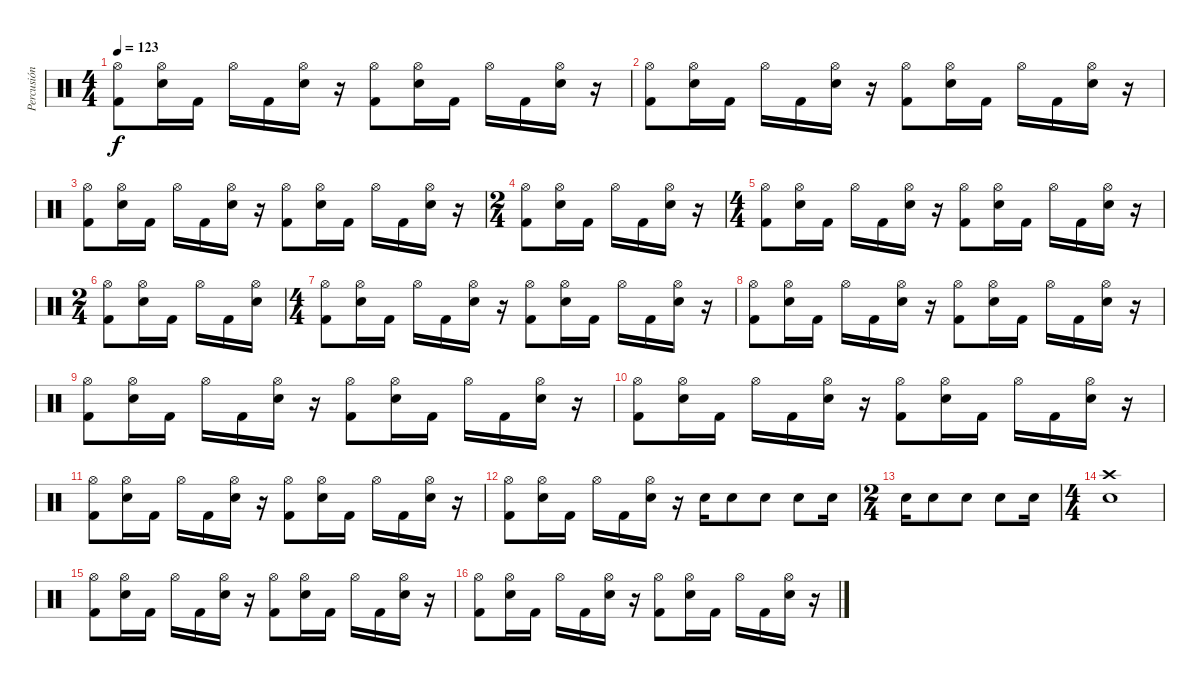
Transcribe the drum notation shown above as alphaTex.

\track ("Percusión" "Percusión") {instrument percussion}
\staff {score}
\articulation defaults
\ts (4 4)
\tempo 123
\clef neutral
\ks c
("Hi-Hat (open)" "Kick (hit) 2").8{dy f} ("Hi-Hat (open)" "Snare (hit) 2").16 "Kick (hit) 2".16 "Hi-Hat (open)".16 "Kick (hit) 2".16 ("Hi-Hat (open)" "Snare (hit) 2").16 r.16 ("Hi-Hat (open)" "Kick (hit) 2").8 ("Hi-Hat (open)" "Snare (hit) 2").16 "Kick (hit) 2".16 "Hi-Hat (open)".16 "Kick (hit) 2".16 ("Hi-Hat (open)" "Snare (hit) 2").16 r.16 |
("Hi-Hat (open)" "Kick (hit) 2").8 ("Hi-Hat (open)" "Snare (hit) 2").16 "Kick (hit) 2".16 "Hi-Hat (open)".16 "Kick (hit) 2".16 ("Hi-Hat (open)" "Snare (hit) 2").16 r.16 ("Hi-Hat (open)" "Kick (hit) 2").8 ("Hi-Hat (open)" "Snare (hit) 2").16 "Kick (hit) 2".16 "Hi-Hat (open)".16 "Kick (hit) 2".16 ("Hi-Hat (open)" "Snare (hit) 2").16 r.16 |
("Hi-Hat (open)" "Kick (hit) 2").8 ("Hi-Hat (open)" "Snare (hit) 2").16 "Kick (hit) 2".16 "Hi-Hat (open)".16 "Kick (hit) 2".16 ("Hi-Hat (open)" "Snare (hit) 2").16 r.16 ("Hi-Hat (open)" "Kick (hit) 2").8 ("Hi-Hat (open)" "Snare (hit) 2").16 "Kick (hit) 2".16 "Hi-Hat (open)".16 "Kick (hit) 2".16 ("Hi-Hat (open)" "Snare (hit) 2").16 r.16 |
\ts (2 4)
("Hi-Hat (open)" "Kick (hit) 2").8 ("Hi-Hat (open)" "Snare (hit) 2").16 "Kick (hit) 2".16 "Hi-Hat (open)".16 "Kick (hit) 2".16 ("Hi-Hat (open)" "Snare (hit) 2").16 r.16 |
\ts (4 4)
("Hi-Hat (open)" "Kick (hit) 2").8 ("Hi-Hat (open)" "Snare (hit) 2").16 "Kick (hit) 2".16 "Hi-Hat (open)".16 "Kick (hit) 2".16 ("Hi-Hat (open)" "Snare (hit) 2").16 r.16 ("Hi-Hat (open)" "Kick (hit) 2").8 ("Hi-Hat (open)" "Snare (hit) 2").16 "Kick (hit) 2".16 "Hi-Hat (open)".16 "Kick (hit) 2".16 ("Hi-Hat (open)" "Snare (hit) 2").16 r.16 |
\ts (2 4)
("Hi-Hat (open)" "Kick (hit) 2").8 ("Hi-Hat (open)" "Snare (hit) 2").16 "Kick (hit) 2".16 "Hi-Hat (open)".16 "Kick (hit) 2".16 ("Hi-Hat (open)" "Snare (hit) 2").16 |
\ts (4 4)
("Hi-Hat (open)" "Kick (hit) 2").8 ("Hi-Hat (open)" "Snare (hit) 2").16 "Kick (hit) 2".16 "Hi-Hat (open)".16 "Kick (hit) 2".16 ("Hi-Hat (open)" "Snare (hit) 2").16 r.16 ("Hi-Hat (open)" "Kick (hit) 2").8 ("Hi-Hat (open)" "Snare (hit) 2").16 "Kick (hit) 2".16 "Hi-Hat (open)".16 "Kick (hit) 2".16 ("Hi-Hat (open)" "Snare (hit) 2").16 r.16 |
("Hi-Hat (open)" "Kick (hit) 2").8 ("Hi-Hat (open)" "Snare (hit) 2").16 "Kick (hit) 2".16 "Hi-Hat (open)".16 "Kick (hit) 2".16 ("Hi-Hat (open)" "Snare (hit) 2").16 r.16 ("Hi-Hat (open)" "Kick (hit) 2").8 ("Hi-Hat (open)" "Snare (hit) 2").16 "Kick (hit) 2".16 "Hi-Hat (open)".16 "Kick (hit) 2".16 ("Hi-Hat (open)" "Snare (hit) 2").16 r.16 |
("Hi-Hat (open)" "Kick (hit) 2").8 ("Hi-Hat (open)" "Snare (hit) 2").16 "Kick (hit) 2".16 "Hi-Hat (open)".16 "Kick (hit) 2".16 ("Hi-Hat (open)" "Snare (hit) 2").16 r.16 ("Hi-Hat (open)" "Kick (hit) 2").8 ("Hi-Hat (open)" "Snare (hit) 2").16 "Kick (hit) 2".16 "Hi-Hat (open)".16 "Kick (hit) 2".16 ("Hi-Hat (open)" "Snare (hit) 2").16 r.16 |
("Hi-Hat (open)" "Kick (hit) 2").8 ("Hi-Hat (open)" "Snare (hit) 2").16 "Kick (hit) 2".16 "Hi-Hat (open)".16 "Kick (hit) 2".16 ("Hi-Hat (open)" "Snare (hit) 2").16 r.16 ("Hi-Hat (open)" "Kick (hit) 2").8 ("Hi-Hat (open)" "Snare (hit) 2").16 "Kick (hit) 2".16 "Hi-Hat (open)".16 "Kick (hit) 2".16 ("Hi-Hat (open)" "Snare (hit) 2").16 r.16 |
("Hi-Hat (open)" "Kick (hit) 2").8 ("Hi-Hat (open)" "Snare (hit) 2").16 "Kick (hit) 2".16 "Hi-Hat (open)".16 "Kick (hit) 2".16 ("Hi-Hat (open)" "Snare (hit) 2").16 r.16 ("Hi-Hat (open)" "Kick (hit) 2").8 ("Hi-Hat (open)" "Snare (hit) 2").16 "Kick (hit) 2".16 "Hi-Hat (open)".16 "Kick (hit) 2".16 ("Hi-Hat (open)" "Snare (hit) 2").16 r.16 |
("Hi-Hat (open)" "Kick (hit) 2").8 ("Hi-Hat (open)" "Snare (hit) 2").16 "Kick (hit) 2".16 "Hi-Hat (open)".16 "Kick (hit) 2".16 ("Hi-Hat (open)" "Snare (hit) 2").16 r.16 "Electric Snare (hit)".16 "Electric Snare (hit)".8 "Electric Snare (hit)".8 "Electric Snare (hit)".8 "Electric Snare (hit)".16 |
\ts (2 4)
"Electric Snare (hit)".16 "Electric Snare (hit)".8 "Electric Snare (hit)".8 "Electric Snare (hit)".8 "Electric Snare (hit)".16 |
\ts (4 4)
("Crash high (hit)" "Snare (hit) 2").1 |
("Hi-Hat (open)" "Kick (hit) 2").8 ("Hi-Hat (open)" "Snare (hit) 2").16 "Kick (hit) 2".16 "Hi-Hat (open)".16 "Kick (hit) 2".16 ("Hi-Hat (open)" "Snare (hit) 2").16 r.16 ("Hi-Hat (open)" "Kick (hit) 2").8 ("Hi-Hat (open)" "Snare (hit) 2").16 "Kick (hit) 2".16 "Hi-Hat (open)".16 "Kick (hit) 2".16 ("Hi-Hat (open)" "Snare (hit) 2").16 r.16 |
("Hi-Hat (open)" "Kick (hit) 2").8 ("Hi-Hat (open)" "Snare (hit) 2").16 "Kick (hit) 2".16 "Hi-Hat (open)".16 "Kick (hit) 2".16 ("Hi-Hat (open)" "Snare (hit) 2").16 r.16 ("Hi-Hat (open)" "Kick (hit) 2").8 ("Hi-Hat (open)" "Snare (hit) 2").16 "Kick (hit) 2".16 "Hi-Hat (open)".16 "Kick (hit) 2".16 ("Hi-Hat (open)" "Snare (hit) 2").16 r.16
